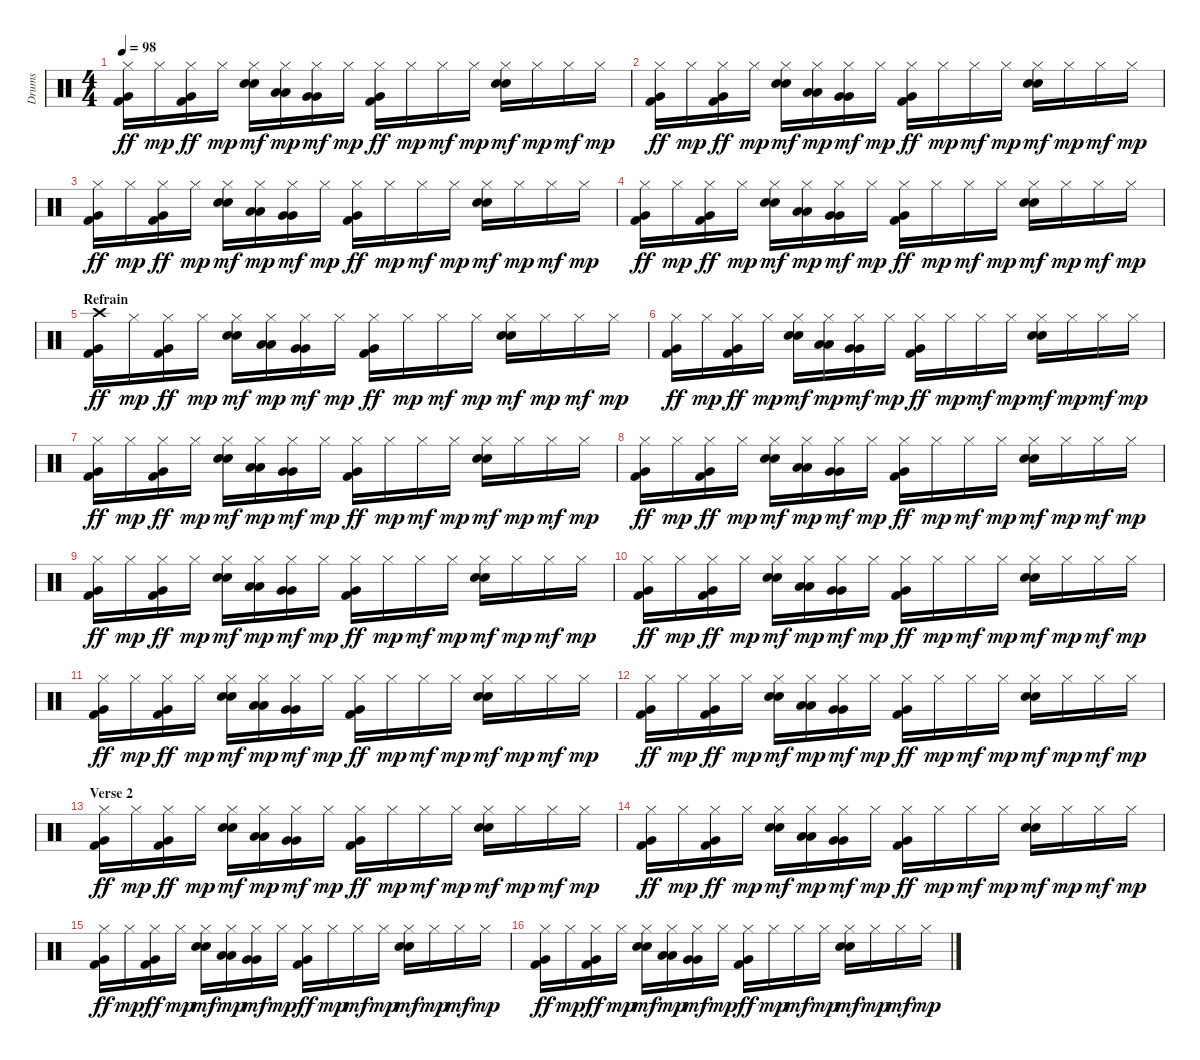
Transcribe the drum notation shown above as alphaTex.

\track ("Drums" "Drums") {instrument percussion}
\staff {score}
\articulation defaults
\ts (4 4)
\tempo 98
\clef neutral
\ks c
("Hi-Hat (closed)" "Very Low Tom (hit)" "Kick (hit) 2").16{dy ff} "Hi-Hat (closed)".16{dy mp} ("Hi-Hat (closed)" "Very Low Tom (hit)" "Kick (hit) 2").16{dy ff} "Hi-Hat (closed)".16{dy mp} ("Hi-Hat (closed)" "Electric Snare (hit)" "Snare (hit) 2").16{dy mf} ("Hi-Hat (closed)" "Low Tom (hit)" "Low Tom (hit)").16{dy mp} ("Hi-Hat (closed)" "Very Low Tom (hit)" "Very Low Tom (hit)").16{dy mf} "Hi-Hat (closed)".16{dy mp} ("Hi-Hat (closed)" "Very Low Tom (hit)" "Kick (hit) 2").16{dy ff} "Hi-Hat (closed)".16{dy mp} "Hi-Hat (closed)".16{dy mf} "Hi-Hat (closed)".16{dy mp} ("Hi-Hat (closed)" "Electric Snare (hit)" "Snare (hit) 2").16{dy mf} "Hi-Hat (closed)".16{dy mp} "Hi-Hat (closed)".16{dy mf} "Hi-Hat (closed)".16{dy mp} |
("Hi-Hat (closed)" "Very Low Tom (hit)" "Kick (hit) 2").16{dy ff} "Hi-Hat (closed)".16{dy mp} ("Hi-Hat (closed)" "Very Low Tom (hit)" "Kick (hit) 2").16{dy ff} "Hi-Hat (closed)".16{dy mp} ("Hi-Hat (closed)" "Electric Snare (hit)" "Snare (hit) 2").16{dy mf} ("Hi-Hat (closed)" "Low Tom (hit)" "Low Tom (hit)").16{dy mp} ("Hi-Hat (closed)" "Very Low Tom (hit)" "Very Low Tom (hit)").16{dy mf} "Hi-Hat (closed)".16{dy mp} ("Hi-Hat (closed)" "Very Low Tom (hit)" "Kick (hit) 2").16{dy ff} "Hi-Hat (closed)".16{dy mp} "Hi-Hat (closed)".16{dy mf} "Hi-Hat (closed)".16{dy mp} ("Hi-Hat (closed)" "Electric Snare (hit)" "Snare (hit) 2").16{dy mf} "Hi-Hat (closed)".16{dy mp} "Hi-Hat (closed)".16{dy mf} "Hi-Hat (closed)".16{dy mp} |
("Hi-Hat (closed)" "Very Low Tom (hit)" "Kick (hit) 2").16{dy ff} "Hi-Hat (closed)".16{dy mp} ("Hi-Hat (closed)" "Very Low Tom (hit)" "Kick (hit) 2").16{dy ff} "Hi-Hat (closed)".16{dy mp} ("Hi-Hat (closed)" "Electric Snare (hit)" "Snare (hit) 2").16{dy mf} ("Hi-Hat (closed)" "Low Tom (hit)" "Low Tom (hit)").16{dy mp} ("Hi-Hat (closed)" "Very Low Tom (hit)" "Very Low Tom (hit)").16{dy mf} "Hi-Hat (closed)".16{dy mp} ("Hi-Hat (closed)" "Very Low Tom (hit)" "Kick (hit) 2").16{dy ff} "Hi-Hat (closed)".16{dy mp} "Hi-Hat (closed)".16{dy mf} "Hi-Hat (closed)".16{dy mp} ("Hi-Hat (closed)" "Electric Snare (hit)" "Snare (hit) 2").16{dy mf} "Hi-Hat (closed)".16{dy mp} "Hi-Hat (closed)".16{dy mf} "Hi-Hat (closed)".16{dy mp} |
("Hi-Hat (closed)" "Very Low Tom (hit)" "Kick (hit) 2").16{dy ff} "Hi-Hat (closed)".16{dy mp} ("Hi-Hat (closed)" "Very Low Tom (hit)" "Kick (hit) 2").16{dy ff} "Hi-Hat (closed)".16{dy mp} ("Hi-Hat (closed)" "Electric Snare (hit)" "Snare (hit) 2").16{dy mf} ("Hi-Hat (closed)" "Low Tom (hit)" "Low Tom (hit)").16{dy mp} ("Hi-Hat (closed)" "Very Low Tom (hit)" "Very Low Tom (hit)").16{dy mf} "Hi-Hat (closed)".16{dy mp} ("Hi-Hat (closed)" "Very Low Tom (hit)" "Kick (hit) 2").16{dy ff} "Hi-Hat (closed)".16{dy mp} "Hi-Hat (closed)".16{dy mf} "Hi-Hat (closed)".16{dy mp} ("Hi-Hat (closed)" "Electric Snare (hit)" "Snare (hit) 2").16{dy mf} "Hi-Hat (closed)".16{dy mp} "Hi-Hat (closed)".16{dy mf} "Hi-Hat (closed)".16{dy mp} |
\section ("" "Refrain")
("Crash high (hit)" "Very Low Tom (hit)" "Kick (hit) 2").16{dy ff} "Hi-Hat (closed)".16{dy mp} ("Hi-Hat (closed)" "Very Low Tom (hit)" "Kick (hit) 2").16{dy ff} "Hi-Hat (closed)".16{dy mp} ("Hi-Hat (closed)" "Electric Snare (hit)" "Snare (hit) 2").16{dy mf} ("Hi-Hat (closed)" "Low Tom (hit)" "Low Tom (hit)").16{dy mp} ("Hi-Hat (closed)" "Very Low Tom (hit)" "Very Low Tom (hit)").16{dy mf} "Hi-Hat (closed)".16{dy mp} ("Hi-Hat (closed)" "Very Low Tom (hit)" "Kick (hit) 2").16{dy ff} "Hi-Hat (closed)".16{dy mp} "Hi-Hat (closed)".16{dy mf} "Hi-Hat (closed)".16{dy mp} ("Hi-Hat (closed)" "Electric Snare (hit)" "Snare (hit) 2").16{dy mf} "Hi-Hat (closed)".16{dy mp} "Hi-Hat (closed)".16{dy mf} "Hi-Hat (closed)".16{dy mp} |
("Hi-Hat (closed)" "Very Low Tom (hit)" "Kick (hit) 2").16{dy ff} "Hi-Hat (closed)".16{dy mp} ("Hi-Hat (closed)" "Very Low Tom (hit)" "Kick (hit) 2").16{dy ff} "Hi-Hat (closed)".16{dy mp} ("Hi-Hat (closed)" "Electric Snare (hit)" "Snare (hit) 2").16{dy mf} ("Hi-Hat (closed)" "Low Tom (hit)" "Low Tom (hit)").16{dy mp} ("Hi-Hat (closed)" "Very Low Tom (hit)" "Very Low Tom (hit)").16{dy mf} "Hi-Hat (closed)".16{dy mp} ("Hi-Hat (closed)" "Very Low Tom (hit)" "Kick (hit) 2").16{dy ff} "Hi-Hat (closed)".16{dy mp} "Hi-Hat (closed)".16{dy mf} "Hi-Hat (closed)".16{dy mp} ("Hi-Hat (closed)" "Electric Snare (hit)" "Snare (hit) 2").16{dy mf} "Hi-Hat (closed)".16{dy mp} "Hi-Hat (closed)".16{dy mf} "Hi-Hat (closed)".16{dy mp} |
("Hi-Hat (closed)" "Very Low Tom (hit)" "Kick (hit) 2").16{dy ff} "Hi-Hat (closed)".16{dy mp} ("Hi-Hat (closed)" "Very Low Tom (hit)" "Kick (hit) 2").16{dy ff} "Hi-Hat (closed)".16{dy mp} ("Hi-Hat (closed)" "Electric Snare (hit)" "Snare (hit) 2").16{dy mf} ("Hi-Hat (closed)" "Low Tom (hit)" "Low Tom (hit)").16{dy mp} ("Hi-Hat (closed)" "Very Low Tom (hit)" "Very Low Tom (hit)").16{dy mf} "Hi-Hat (closed)".16{dy mp} ("Hi-Hat (closed)" "Very Low Tom (hit)" "Kick (hit) 2").16{dy ff} "Hi-Hat (closed)".16{dy mp} "Hi-Hat (closed)".16{dy mf} "Hi-Hat (closed)".16{dy mp} ("Hi-Hat (closed)" "Electric Snare (hit)" "Snare (hit) 2").16{dy mf} "Hi-Hat (closed)".16{dy mp} "Hi-Hat (closed)".16{dy mf} "Hi-Hat (closed)".16{dy mp} |
("Hi-Hat (closed)" "Very Low Tom (hit)" "Kick (hit) 2").16{dy ff} "Hi-Hat (closed)".16{dy mp} ("Hi-Hat (closed)" "Very Low Tom (hit)" "Kick (hit) 2").16{dy ff} "Hi-Hat (closed)".16{dy mp} ("Hi-Hat (closed)" "Electric Snare (hit)" "Snare (hit) 2").16{dy mf} ("Hi-Hat (closed)" "Low Tom (hit)" "Low Tom (hit)").16{dy mp} ("Hi-Hat (closed)" "Very Low Tom (hit)" "Very Low Tom (hit)").16{dy mf} "Hi-Hat (closed)".16{dy mp} ("Hi-Hat (closed)" "Very Low Tom (hit)" "Kick (hit) 2").16{dy ff} "Hi-Hat (closed)".16{dy mp} "Hi-Hat (closed)".16{dy mf} "Hi-Hat (closed)".16{dy mp} ("Hi-Hat (closed)" "Electric Snare (hit)" "Snare (hit) 2").16{dy mf} "Hi-Hat (closed)".16{dy mp} "Hi-Hat (closed)".16{dy mf} "Hi-Hat (closed)".16{dy mp} |
("Hi-Hat (closed)" "Very Low Tom (hit)" "Kick (hit) 2").16{dy ff} "Hi-Hat (closed)".16{dy mp} ("Hi-Hat (closed)" "Very Low Tom (hit)" "Kick (hit) 2").16{dy ff} "Hi-Hat (closed)".16{dy mp} ("Hi-Hat (closed)" "Electric Snare (hit)" "Snare (hit) 2").16{dy mf} ("Hi-Hat (closed)" "Low Tom (hit)" "Low Tom (hit)").16{dy mp} ("Hi-Hat (closed)" "Very Low Tom (hit)" "Very Low Tom (hit)").16{dy mf} "Hi-Hat (closed)".16{dy mp} ("Hi-Hat (closed)" "Very Low Tom (hit)" "Kick (hit) 2").16{dy ff} "Hi-Hat (closed)".16{dy mp} "Hi-Hat (closed)".16{dy mf} "Hi-Hat (closed)".16{dy mp} ("Hi-Hat (closed)" "Electric Snare (hit)" "Snare (hit) 2").16{dy mf} "Hi-Hat (closed)".16{dy mp} "Hi-Hat (closed)".16{dy mf} "Hi-Hat (closed)".16{dy mp} |
("Hi-Hat (closed)" "Very Low Tom (hit)" "Kick (hit) 2").16{dy ff} "Hi-Hat (closed)".16{dy mp} ("Hi-Hat (closed)" "Very Low Tom (hit)" "Kick (hit) 2").16{dy ff} "Hi-Hat (closed)".16{dy mp} ("Hi-Hat (closed)" "Electric Snare (hit)" "Snare (hit) 2").16{dy mf} ("Hi-Hat (closed)" "Low Tom (hit)" "Low Tom (hit)").16{dy mp} ("Hi-Hat (closed)" "Very Low Tom (hit)" "Very Low Tom (hit)").16{dy mf} "Hi-Hat (closed)".16{dy mp} ("Hi-Hat (closed)" "Very Low Tom (hit)" "Kick (hit) 2").16{dy ff} "Hi-Hat (closed)".16{dy mp} "Hi-Hat (closed)".16{dy mf} "Hi-Hat (closed)".16{dy mp} ("Hi-Hat (closed)" "Electric Snare (hit)" "Snare (hit) 2").16{dy mf} "Hi-Hat (closed)".16{dy mp} "Hi-Hat (closed)".16{dy mf} "Hi-Hat (closed)".16{dy mp} |
("Hi-Hat (closed)" "Very Low Tom (hit)" "Kick (hit) 2").16{dy ff} "Hi-Hat (closed)".16{dy mp} ("Hi-Hat (closed)" "Very Low Tom (hit)" "Kick (hit) 2").16{dy ff} "Hi-Hat (closed)".16{dy mp} ("Hi-Hat (closed)" "Electric Snare (hit)" "Snare (hit) 2").16{dy mf} ("Hi-Hat (closed)" "Low Tom (hit)" "Low Tom (hit)").16{dy mp} ("Hi-Hat (closed)" "Very Low Tom (hit)" "Very Low Tom (hit)").16{dy mf} "Hi-Hat (closed)".16{dy mp} ("Hi-Hat (closed)" "Very Low Tom (hit)" "Kick (hit) 2").16{dy ff} "Hi-Hat (closed)".16{dy mp} "Hi-Hat (closed)".16{dy mf} "Hi-Hat (closed)".16{dy mp} ("Hi-Hat (closed)" "Electric Snare (hit)" "Snare (hit) 2").16{dy mf} "Hi-Hat (closed)".16{dy mp} "Hi-Hat (closed)".16{dy mf} "Hi-Hat (closed)".16{dy mp} |
("Hi-Hat (closed)" "Very Low Tom (hit)" "Kick (hit) 2").16{dy ff} "Hi-Hat (closed)".16{dy mp} ("Hi-Hat (closed)" "Very Low Tom (hit)" "Kick (hit) 2").16{dy ff} "Hi-Hat (closed)".16{dy mp} ("Hi-Hat (closed)" "Electric Snare (hit)" "Snare (hit) 2").16{dy mf} ("Hi-Hat (closed)" "Low Tom (hit)" "Low Tom (hit)").16{dy mp} ("Hi-Hat (closed)" "Very Low Tom (hit)" "Very Low Tom (hit)").16{dy mf} "Hi-Hat (closed)".16{dy mp} ("Hi-Hat (closed)" "Very Low Tom (hit)" "Kick (hit) 2").16{dy ff} "Hi-Hat (closed)".16{dy mp} "Hi-Hat (closed)".16{dy mf} "Hi-Hat (closed)".16{dy mp} ("Hi-Hat (closed)" "Electric Snare (hit)" "Snare (hit) 2").16{dy mf} "Hi-Hat (closed)".16{dy mp} "Hi-Hat (closed)".16{dy mf} "Hi-Hat (closed)".16{dy mp} |
\section ("" "Verse 2")
("Hi-Hat (closed)" "Very Low Tom (hit)" "Kick (hit) 2").16{dy ff} "Hi-Hat (closed)".16{dy mp} ("Hi-Hat (closed)" "Very Low Tom (hit)" "Kick (hit) 2").16{dy ff} "Hi-Hat (closed)".16{dy mp} ("Hi-Hat (closed)" "Electric Snare (hit)" "Snare (hit) 2").16{dy mf} ("Hi-Hat (closed)" "Low Tom (hit)" "Low Tom (hit)").16{dy mp} ("Hi-Hat (closed)" "Very Low Tom (hit)" "Very Low Tom (hit)").16{dy mf} "Hi-Hat (closed)".16{dy mp} ("Hi-Hat (closed)" "Very Low Tom (hit)" "Kick (hit) 2").16{dy ff} "Hi-Hat (closed)".16{dy mp} "Hi-Hat (closed)".16{dy mf} "Hi-Hat (closed)".16{dy mp} ("Hi-Hat (closed)" "Electric Snare (hit)" "Snare (hit) 2").16{dy mf} "Hi-Hat (closed)".16{dy mp} "Hi-Hat (closed)".16{dy mf} "Hi-Hat (closed)".16{dy mp} |
("Hi-Hat (closed)" "Very Low Tom (hit)" "Kick (hit) 2").16{dy ff} "Hi-Hat (closed)".16{dy mp} ("Hi-Hat (closed)" "Very Low Tom (hit)" "Kick (hit) 2").16{dy ff} "Hi-Hat (closed)".16{dy mp} ("Hi-Hat (closed)" "Electric Snare (hit)" "Snare (hit) 2").16{dy mf} ("Hi-Hat (closed)" "Low Tom (hit)" "Low Tom (hit)").16{dy mp} ("Hi-Hat (closed)" "Very Low Tom (hit)" "Very Low Tom (hit)").16{dy mf} "Hi-Hat (closed)".16{dy mp} ("Hi-Hat (closed)" "Very Low Tom (hit)" "Kick (hit) 2").16{dy ff} "Hi-Hat (closed)".16{dy mp} "Hi-Hat (closed)".16{dy mf} "Hi-Hat (closed)".16{dy mp} ("Hi-Hat (closed)" "Electric Snare (hit)" "Snare (hit) 2").16{dy mf} "Hi-Hat (closed)".16{dy mp} "Hi-Hat (closed)".16{dy mf} "Hi-Hat (closed)".16{dy mp} |
("Hi-Hat (closed)" "Very Low Tom (hit)" "Kick (hit) 2").16{dy ff} "Hi-Hat (closed)".16{dy mp} ("Hi-Hat (closed)" "Very Low Tom (hit)" "Kick (hit) 2").16{dy ff} "Hi-Hat (closed)".16{dy mp} ("Hi-Hat (closed)" "Electric Snare (hit)" "Snare (hit) 2").16{dy mf} ("Hi-Hat (closed)" "Low Tom (hit)" "Low Tom (hit)").16{dy mp} ("Hi-Hat (closed)" "Very Low Tom (hit)" "Very Low Tom (hit)").16{dy mf} "Hi-Hat (closed)".16{dy mp} ("Hi-Hat (closed)" "Very Low Tom (hit)" "Kick (hit) 2").16{dy ff} "Hi-Hat (closed)".16{dy mp} "Hi-Hat (closed)".16{dy mf} "Hi-Hat (closed)".16{dy mp} ("Hi-Hat (closed)" "Electric Snare (hit)" "Snare (hit) 2").16{dy mf} "Hi-Hat (closed)".16{dy mp} "Hi-Hat (closed)".16{dy mf} "Hi-Hat (closed)".16{dy mp} |
("Hi-Hat (closed)" "Very Low Tom (hit)" "Kick (hit) 2").16{dy ff} "Hi-Hat (closed)".16{dy mp} ("Hi-Hat (closed)" "Very Low Tom (hit)" "Kick (hit) 2").16{dy ff} "Hi-Hat (closed)".16{dy mp} ("Hi-Hat (closed)" "Electric Snare (hit)" "Snare (hit) 2").16{dy mf} ("Hi-Hat (closed)" "Low Tom (hit)" "Low Tom (hit)").16{dy mp} ("Hi-Hat (closed)" "Very Low Tom (hit)" "Very Low Tom (hit)").16{dy mf} "Hi-Hat (closed)".16{dy mp} ("Hi-Hat (closed)" "Very Low Tom (hit)" "Kick (hit) 2").16{dy ff} "Hi-Hat (closed)".16{dy mp} "Hi-Hat (closed)".16{dy mf} "Hi-Hat (closed)".16{dy mp} ("Hi-Hat (closed)" "Electric Snare (hit)" "Snare (hit) 2").16{dy mf} "Hi-Hat (closed)".16{dy mp} "Hi-Hat (closed)".16{dy mf} "Hi-Hat (closed)".16{dy mp}
